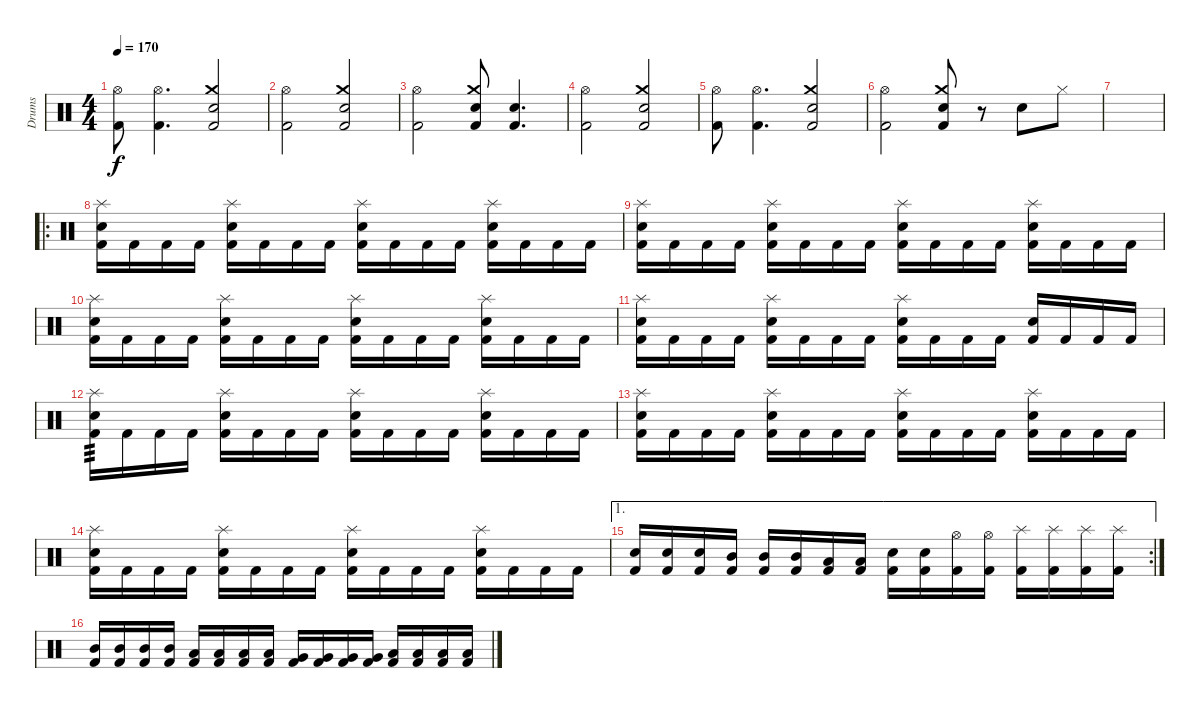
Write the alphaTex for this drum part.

\track ("Drums" "Drums") {instrument percussion}
\staff {score}
\articulation defaults
\ts (4 4)
\tempo 170
\clef neutral
\ks c
("Hi-Hat (open)" "Kick (hit) 2").8{dy f} ("Hi-Hat (open)" "Kick (hit) 2").4{d} ("Crash medium (hit)" "Snare (hit) 2" "Kick (hit) 2").2 |
("Hi-Hat (open)" "Kick (hit) 2").2 ("Crash medium (hit)" "Snare (hit) 2" "Kick (hit) 2").2 |
("Hi-Hat (open)" "Kick (hit) 2").2 ("Crash medium (hit)" "Snare (hit) 2" "Kick (hit) 2").8 ("Snare (hit) 2" "Kick (hit) 2").4{d} |
("Hi-Hat (open)" "Kick (hit) 2").2 ("Crash medium (hit)" "Snare (hit) 2" "Kick (hit) 2").2 |
("Hi-Hat (open)" "Kick (hit) 2").8 ("Hi-Hat (open)" "Kick (hit) 2").4{d} ("Crash medium (hit)" "Snare (hit) 2" "Kick (hit) 2").2 |
("Hi-Hat (open)" "Kick (hit) 2").2 ("Crash medium (hit)" "Snare (hit) 2" "Kick (hit) 2").8 r.8 "Snare (hit) 2".8 "Hi-Hat (closed)".8 |
|
\ro
("Splash (hit)" "Snare (hit) 2" "Kick (hit) 2").16 "Kick (hit) 2".16 "Kick (hit) 2".16 "Kick (hit) 2".16 ("Splash (hit)" "Snare (hit) 2" "Kick (hit) 2").16 "Kick (hit) 2".16 "Kick (hit) 2".16 "Kick (hit) 2".16 ("Splash (hit)" "Snare (hit) 2" "Kick (hit) 2").16 "Kick (hit) 2".16 "Kick (hit) 2".16 "Kick (hit) 2".16 ("Splash (hit)" "Snare (hit) 2" "Kick (hit) 2").16 "Kick (hit) 2".16 "Kick (hit) 2".16 "Kick (hit) 2".16 |
("Splash (hit)" "Snare (hit) 2" "Kick (hit) 2").16 "Kick (hit) 2".16 "Kick (hit) 2".16 "Kick (hit) 2".16 ("Splash (hit)" "Snare (hit) 2" "Kick (hit) 2").16 "Kick (hit) 2".16 "Kick (hit) 2".16 "Kick (hit) 2".16 ("Splash (hit)" "Snare (hit) 2" "Kick (hit) 2").16 "Kick (hit) 2".16 "Kick (hit) 2".16 "Kick (hit) 2".16 ("Splash (hit)" "Snare (hit) 2" "Kick (hit) 2").16 "Kick (hit) 2".16 "Kick (hit) 2".16 "Kick (hit) 2".16 |
("Splash (hit)" "Snare (hit) 2" "Kick (hit) 2").16 "Kick (hit) 2".16 "Kick (hit) 2".16 "Kick (hit) 2".16 ("Splash (hit)" "Snare (hit) 2" "Kick (hit) 2").16 "Kick (hit) 2".16 "Kick (hit) 2".16 "Kick (hit) 2".16 ("Splash (hit)" "Snare (hit) 2" "Kick (hit) 2").16 "Kick (hit) 2".16 "Kick (hit) 2".16 "Kick (hit) 2".16 ("Splash (hit)" "Snare (hit) 2" "Kick (hit) 2").16 "Kick (hit) 2".16 "Kick (hit) 2".16 "Kick (hit) 2".16 |
("Splash (hit)" "Snare (hit) 2" "Kick (hit) 2").16 "Kick (hit) 2".16 "Kick (hit) 2".16 "Kick (hit) 2".16 ("Splash (hit)" "Snare (hit) 2" "Kick (hit) 2").16 "Kick (hit) 2".16 "Kick (hit) 2".16 "Kick (hit) 2".16 ("Splash (hit)" "Snare (hit) 2" "Kick (hit) 2").16 "Kick (hit) 2".16 "Kick (hit) 2".16 "Kick (hit) 2".16 ("Snare (hit) 2" "Kick (hit) 2").16 "Kick (hit) 2".16 "Kick (hit) 2".16 "Kick (hit) 2".16 |
("Splash (hit)" "Snare (hit) 2" "Kick (hit) 2").16{tp 3} "Kick (hit) 2".16 "Kick (hit) 2".16 "Kick (hit) 2".16 ("Splash (hit)" "Snare (hit) 2" "Kick (hit) 2").16 "Kick (hit) 2".16 "Kick (hit) 2".16 "Kick (hit) 2".16 ("Splash (hit)" "Snare (hit) 2" "Kick (hit) 2").16 "Kick (hit) 2".16 "Kick (hit) 2".16 "Kick (hit) 2".16 ("Splash (hit)" "Snare (hit) 2" "Kick (hit) 2").16 "Kick (hit) 2".16 "Kick (hit) 2".16 "Kick (hit) 2".16 |
("Splash (hit)" "Snare (hit) 2" "Kick (hit) 2").16 "Kick (hit) 2".16 "Kick (hit) 2".16 "Kick (hit) 2".16 ("Splash (hit)" "Snare (hit) 2" "Kick (hit) 2").16 "Kick (hit) 2".16 "Kick (hit) 2".16 "Kick (hit) 2".16 ("Splash (hit)" "Snare (hit) 2" "Kick (hit) 2").16 "Kick (hit) 2".16 "Kick (hit) 2".16 "Kick (hit) 2".16 ("Splash (hit)" "Snare (hit) 2" "Kick (hit) 2").16 "Kick (hit) 2".16 "Kick (hit) 2".16 "Kick (hit) 2".16 |
("Splash (hit)" "Snare (hit) 2" "Kick (hit) 2").16 "Kick (hit) 2".16 "Kick (hit) 2".16 "Kick (hit) 2".16 ("Splash (hit)" "Snare (hit) 2" "Kick (hit) 2").16 "Kick (hit) 2".16 "Kick (hit) 2".16 "Kick (hit) 2".16 ("Splash (hit)" "Snare (hit) 2" "Kick (hit) 2").16 "Kick (hit) 2".16 "Kick (hit) 2".16 "Kick (hit) 2".16 ("Splash (hit)" "Snare (hit) 2" "Kick (hit) 2").16 "Kick (hit) 2".16 "Kick (hit) 2".16 "Kick (hit) 2".16 |
\ae 1
\rc 2
("Snare (hit) 2" "Kick (hit) 2").16 ("Snare (hit) 2" "Kick (hit) 2").16 ("Snare (hit) 2" "Kick (hit) 2").16 ("Mid Tom (hit)" "Kick (hit) 2").16 ("Mid Tom (hit)" "Kick (hit) 2").16 ("Mid Tom (hit)" "Kick (hit) 2").16 ("Low Tom (hit)" "Kick (hit) 2").16 ("Low Tom (hit)" "Kick (hit) 2").16 ("Snare (hit) 2" "Kick (hit) 2").16 ("Snare (hit) 2" "Kick (hit) 2").16 ("Hi-Hat (open)" "Kick (hit) 2").16 ("Hi-Hat (open)" "Kick (hit) 2").16 ("Splash (hit)" "Kick (hit) 2").16 ("Splash (hit)" "Kick (hit) 2").16 ("Splash (hit)" "Kick (hit) 2").16 ("Splash (hit)" "Kick (hit) 2").16 |
("Mid Tom (hit)" "Kick (hit) 2").16 ("Mid Tom (hit)" "Kick (hit) 2").16 ("Mid Tom (hit)" "Kick (hit) 2").16 ("Mid Tom (hit)" "Kick (hit) 2").16 ("Low Tom (hit)" "Kick (hit) 2").16 ("Low Tom (hit)" "Kick (hit) 2").16 ("Low Tom (hit)" "Kick (hit) 2").16 ("Low Tom (hit)" "Kick (hit) 2").16 ("Very Low Tom (hit)" "Kick (hit) 2").16 ("Very Low Tom (hit)" "Kick (hit) 2").16 ("Very Low Tom (hit)" "Kick (hit) 2").16 ("Very Low Tom (hit)" "Kick (hit) 2").16 ("Low Floor Tom (hit)" "Kick (hit) 2").16 ("Low Floor Tom (hit)" "Kick (hit) 2").16 ("Low Floor Tom (hit)" "Kick (hit) 2").16 ("Low Floor Tom (hit)" "Kick (hit) 2").16
